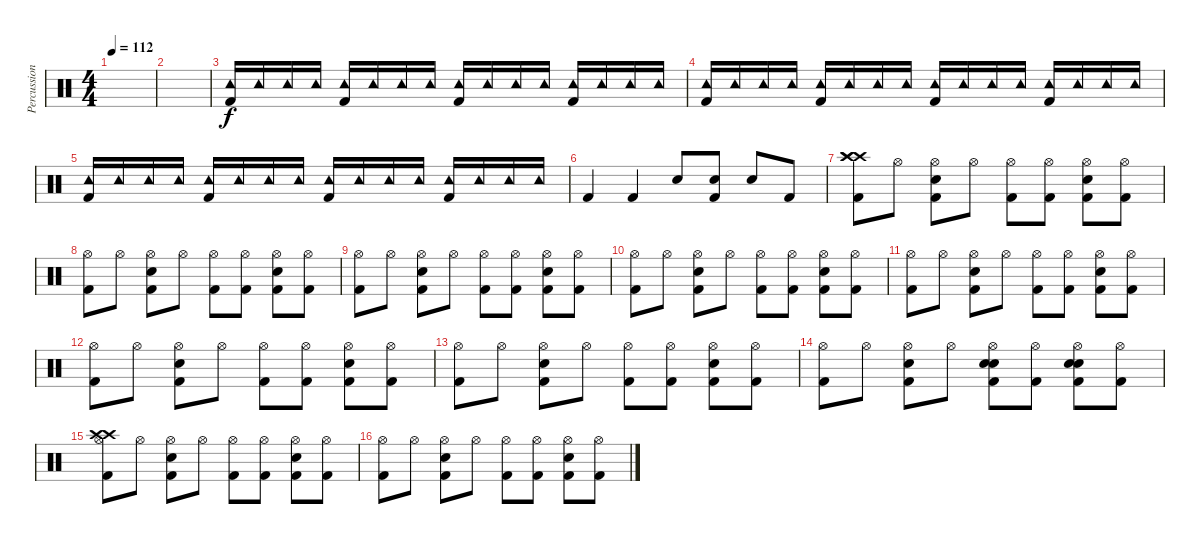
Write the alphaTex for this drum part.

\track ("Percussion" "Percussion") {instrument percussion}
\staff {score}
\articulation defaults
\ts (4 4)
\tempo 112
\clef neutral
\ks c
|
|
("Tambourine (hit)" "Kick (hit) 2").16 "Tambourine (hit)".16 "Tambourine (hit)".16 "Tambourine (hit)".16 ("Tambourine (hit)" "Kick (hit) 2").16 "Tambourine (hit)".16 "Tambourine (hit)".16 "Tambourine (hit)".16 ("Tambourine (hit)" "Kick (hit) 2").16 "Tambourine (hit)".16 "Tambourine (hit)".16 "Tambourine (hit)".16 ("Tambourine (hit)" "Kick (hit) 2").16 "Tambourine (hit)".16 "Tambourine (hit)".16 "Tambourine (hit)".16 |
("Tambourine (hit)" "Kick (hit) 2").16 "Tambourine (hit)".16 "Tambourine (hit)".16 "Tambourine (hit)".16 ("Tambourine (hit)" "Kick (hit) 2").16 "Tambourine (hit)".16 "Tambourine (hit)".16 "Tambourine (hit)".16 ("Tambourine (hit)" "Kick (hit) 2").16 "Tambourine (hit)".16 "Tambourine (hit)".16 "Tambourine (hit)".16 ("Tambourine (hit)" "Kick (hit) 2").16 "Tambourine (hit)".16 "Tambourine (hit)".16 "Tambourine (hit)".16 |
("Tambourine (hit)" "Kick (hit) 2").16 "Tambourine (hit)".16 "Tambourine (hit)".16 "Tambourine (hit)".16 ("Tambourine (hit)" "Kick (hit) 2").16 "Tambourine (hit)".16 "Tambourine (hit)".16 "Tambourine (hit)".16 ("Tambourine (hit)" "Kick (hit) 2").16 "Tambourine (hit)".16 "Tambourine (hit)".16 "Tambourine (hit)".16 ("Tambourine (hit)" "Kick (hit) 2").16 "Tambourine (hit)".16 "Tambourine (hit)".16 "Tambourine (hit)".16 |
"Kick (hit) 2".4 "Kick (hit) 2".4 "Electric Snare (hit)".8 ("Electric Snare (hit)" "Kick (hit) 2").8 "Snare (hit) 2".8 "Kick (hit) 2".8 |
("Crash high (hit)" "Crash high (hit)" "Crash high (hit)" "Kick (hit) 2").8 "Hi-Hat (open)".8 ("Hi-Hat (open)" "Electric Snare (hit)" "Kick (hit) 2").8 "Hi-Hat (open)".8 ("Hi-Hat (open)" "Kick (hit) 2").8 ("Hi-Hat (open)" "Kick (hit) 2").8 ("Hi-Hat (open)" "Electric Snare (hit)" "Kick (hit) 2").8 ("Hi-Hat (open)" "Kick (hit) 2").8 |
("Hi-Hat (open)" "Kick (hit) 2").8 "Hi-Hat (open)".8 ("Hi-Hat (open)" "Electric Snare (hit)" "Kick (hit) 2").8 "Hi-Hat (open)".8 ("Hi-Hat (open)" "Kick (hit) 2").8 ("Hi-Hat (open)" "Kick (hit) 2").8 ("Hi-Hat (open)" "Electric Snare (hit)" "Kick (hit) 2").8 ("Hi-Hat (open)" "Kick (hit) 2").8 |
("Hi-Hat (open)" "Kick (hit) 2").8 "Hi-Hat (open)".8 ("Hi-Hat (open)" "Electric Snare (hit)" "Kick (hit) 2").8 "Hi-Hat (open)".8 ("Hi-Hat (open)" "Kick (hit) 2").8 ("Hi-Hat (open)" "Kick (hit) 2").8 ("Hi-Hat (open)" "Electric Snare (hit)" "Kick (hit) 2").8 ("Hi-Hat (open)" "Kick (hit) 2").8 |
("Hi-Hat (open)" "Kick (hit) 2").8 "Hi-Hat (open)".8 ("Hi-Hat (open)" "Electric Snare (hit)" "Kick (hit) 2").8 "Hi-Hat (open)".8 ("Hi-Hat (open)" "Kick (hit) 2").8 ("Hi-Hat (open)" "Kick (hit) 2").8 ("Hi-Hat (open)" "Electric Snare (hit)" "Kick (hit) 2").8 ("Hi-Hat (open)" "Kick (hit) 2").8 |
("Hi-Hat (open)" "Kick (hit) 2").8 "Hi-Hat (open)".8 ("Hi-Hat (open)" "Electric Snare (hit)" "Kick (hit) 2").8 "Hi-Hat (open)".8 ("Hi-Hat (open)" "Kick (hit) 2").8 ("Hi-Hat (open)" "Kick (hit) 2").8 ("Hi-Hat (open)" "Electric Snare (hit)" "Kick (hit) 2").8 ("Hi-Hat (open)" "Kick (hit) 2").8 |
("Hi-Hat (open)" "Kick (hit) 2").8 "Hi-Hat (open)".8 ("Hi-Hat (open)" "Electric Snare (hit)" "Kick (hit) 2").8 "Hi-Hat (open)".8 ("Hi-Hat (open)" "Kick (hit) 2").8 ("Hi-Hat (open)" "Kick (hit) 2").8 ("Hi-Hat (open)" "Electric Snare (hit)" "Kick (hit) 2").8 ("Hi-Hat (open)" "Kick (hit) 2").8 |
("Hi-Hat (open)" "Kick (hit) 2").8 "Hi-Hat (open)".8 ("Hi-Hat (open)" "Electric Snare (hit)" "Kick (hit) 2").8 "Hi-Hat (open)".8 ("Hi-Hat (open)" "Kick (hit) 2").8 ("Hi-Hat (open)" "Kick (hit) 2").8 ("Hi-Hat (open)" "Electric Snare (hit)" "Kick (hit) 2").8 ("Hi-Hat (open)" "Kick (hit) 2").8 |
("Hi-Hat (open)" "Kick (hit) 2").8 "Hi-Hat (open)".8 ("Hi-Hat (open)" "Electric Snare (hit)" "Kick (hit) 2").8 "Hi-Hat (open)".8 ("Hi-Hat (open)" "Electric Snare (hit)" "Electric Snare (hit)" "Kick (hit) 2").8 ("Hi-Hat (open)" "Kick (hit) 2").8 ("Hi-Hat (open)" "Electric Snare (hit)" "Electric Snare (hit)" "Kick (hit) 2").8 ("Hi-Hat (open)" "Kick (hit) 2").8 |
("Hi-Hat (open)" "Crash high (hit)" "Crash high (hit)" "Kick (hit) 2").8 "Hi-Hat (open)".8 ("Hi-Hat (open)" "Electric Snare (hit)" "Kick (hit) 2").8 "Hi-Hat (open)".8 ("Hi-Hat (open)" "Kick (hit) 2").8 ("Hi-Hat (open)" "Kick (hit) 2").8 ("Hi-Hat (open)" "Electric Snare (hit)" "Kick (hit) 2").8 ("Hi-Hat (open)" "Kick (hit) 2").8 |
("Hi-Hat (open)" "Kick (hit) 2").8 "Hi-Hat (open)".8 ("Hi-Hat (open)" "Electric Snare (hit)" "Kick (hit) 2").8 "Hi-Hat (open)".8 ("Hi-Hat (open)" "Kick (hit) 2").8 ("Hi-Hat (open)" "Kick (hit) 2").8 ("Hi-Hat (open)" "Electric Snare (hit)" "Kick (hit) 2").8 ("Hi-Hat (open)" "Kick (hit) 2").8
